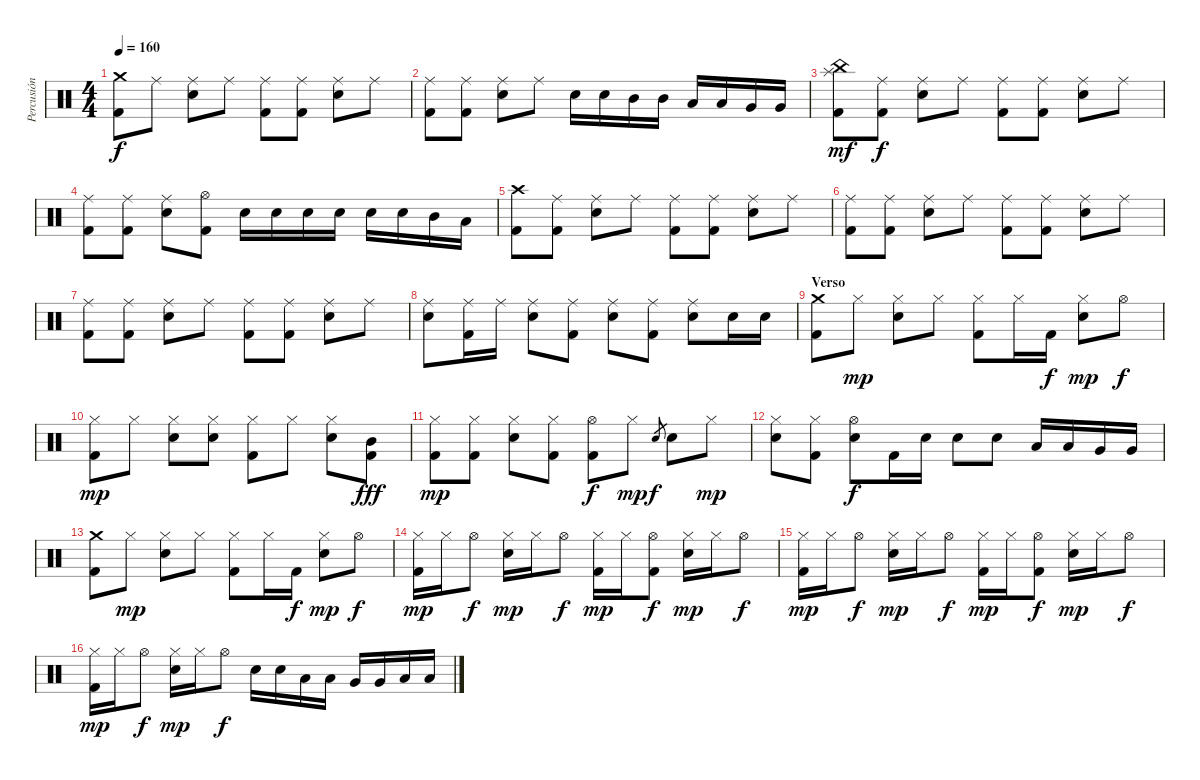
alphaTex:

\track ("Percusión" "Percusión") {instrument percussion}
\staff {score}
\articulation defaults
\ts (4 4)
\tempo 160
\clef neutral
\ks c
("Crash medium (hit)" "Kick (hit) 2").8{dy f} "Ride (middle)".8 ("Ride (middle)" "Electric Snare (hit)").8 "Ride (middle)".8 ("Ride (middle)" "Kick (hit) 2").8 ("Ride (middle)" "Kick (hit) 2").8 ("Ride (middle)" "Electric Snare (hit)").8 "Ride (middle)".8 |
("Ride (middle)" "Kick (hit) 2").8 ("Ride (middle)" "Kick (hit) 2").8 ("Ride (middle)" "Electric Snare (hit)").8 "Ride (middle)".8 "Electric Snare (hit)".16 "Electric Snare (hit)".16 "Mid Tom (hit)".16 "Mid Tom (hit)".16 "Low Tom (hit)".16 "Low Tom (hit)".16 "Very Low Tom (hit)".16 "Very Low Tom (hit)".16 |
("Splash (hit)" "China (hit)" "Kick (hit) 2").8{dy mf} ("Ride (middle)" "Kick (hit) 2").8{dy f} ("Ride (middle)" "Electric Snare (hit)").8 "Ride (middle)".8 ("Ride (middle)" "Kick (hit) 2").8 ("Ride (middle)" "Kick (hit) 2").8 ("Ride (middle)" "Electric Snare (hit)").8 "Ride (middle)".8 |
("Ride (middle)" "Kick (hit) 2").8 ("Ride (middle)" "Kick (hit) 2").8 ("Ride (middle)" "Electric Snare (hit)").8 ("Hi-Hat (open)" "Kick (hit) 2").8 "Electric Snare (hit)".16 "Electric Snare (hit)".16 "Electric Snare (hit)".16 "Electric Snare (hit)".16 "Electric Snare (hit)".16 "Electric Snare (hit)".16 "Mid Tom (hit)".16 "Low Tom (hit)".16 |
("Crash high (hit)" "Kick (hit) 2").8 ("Ride (middle)" "Kick (hit) 2").8 ("Ride (middle)" "Electric Snare (hit)").8 "Ride (middle)".8 ("Ride (middle)" "Kick (hit) 2").8 ("Ride (middle)" "Kick (hit) 2").8 ("Ride (middle)" "Electric Snare (hit)").8 "Ride (middle)".8 |
("Ride (middle)" "Kick (hit) 2").8 ("Ride (middle)" "Kick (hit) 2").8 ("Ride (middle)" "Electric Snare (hit)").8 "Ride (middle)".8 ("Ride (middle)" "Kick (hit) 2").8 ("Ride (middle)" "Kick (hit) 2").8 ("Ride (middle)" "Electric Snare (hit)").8 "Ride (middle)".8 |
("Ride (middle)" "Kick (hit) 2").8 ("Ride (middle)" "Kick (hit) 2").8 ("Ride (middle)" "Electric Snare (hit)").8 "Ride (middle)".8 ("Ride (middle)" "Kick (hit) 2").8 ("Ride (middle)" "Kick (hit) 2").8 ("Ride (middle)" "Electric Snare (hit)").8 "Ride (middle)".8 |
("Ride (middle)" "Electric Snare (hit)").8 ("Ride (middle)" "Kick (hit) 2").16 "Ride (middle)".16 ("Ride (middle)" "Electric Snare (hit)").8 ("Ride (middle)" "Kick (hit) 2").8 ("Ride (middle)" "Electric Snare (hit)").8 ("Ride (middle)" "Kick (hit) 2").8 ("Ride (middle)" "Electric Snare (hit)").8 "Electric Snare (hit)".16 "Electric Snare (hit)".16 |
\section ("" "Verso")
("Crash medium (hit)" "Kick (hit) 2").8 "Hi-Hat (closed)".8{dy mp} ("Hi-Hat (closed)" "Electric Snare (hit)").8 "Hi-Hat (closed)".8 ("Hi-Hat (closed)" "Kick (hit) 2").8 "Hi-Hat (closed)".16 "Kick (hit) 2".16{dy f} ("Hi-Hat (closed)" "Electric Snare (hit)").8{dy mp} "Hi-Hat (open)".8{dy f} |
("Hi-Hat (closed)" "Kick (hit) 2").8{dy mp} "Hi-Hat (closed)".8 ("Hi-Hat (closed)" "Electric Snare (hit)").8 ("Hi-Hat (closed)" "Electric Snare (hit)").8 ("Hi-Hat (closed)" "Kick (hit) 2").8 "Hi-Hat (closed)".8 ("Hi-Hat (closed)" "Electric Snare (hit)").8 ("Mid Tom (hit)" "Kick (hit) 2").8{dy fff} |
("Hi-Hat (closed)" "Kick (hit) 2").8{dy mp} ("Hi-Hat (closed)" "Kick (hit) 2").8 ("Hi-Hat (closed)" "Electric Snare (hit)").8 ("Hi-Hat (closed)" "Kick (hit) 2").8 ("Hi-Hat (open)" "Kick (hit) 2").8{dy f} "Hi-Hat (closed)".8{dy mp} "Electric Snare (hit)".8{gr dy f} "Electric Snare (hit)".8 "Hi-Hat (closed)".8{dy mp} |
("Hi-Hat (closed)" "Electric Snare (hit)").8 ("Hi-Hat (closed)" "Kick (hit) 2").8 ("Hi-Hat (open)" "Electric Snare (hit)").8{dy f} "Kick (hit) 2".16 "Electric Snare (hit)".16 "Electric Snare (hit)".8 "Electric Snare (hit)".8 "Low Tom (hit)".16 "Low Tom (hit)".16 "Very Low Tom (hit)".16 "Very Low Tom (hit)".16 |
("Crash medium (hit)" "Kick (hit) 2").8 "Hi-Hat (closed)".8{dy mp} ("Hi-Hat (closed)" "Electric Snare (hit)").8 "Hi-Hat (closed)".8 ("Hi-Hat (closed)" "Kick (hit) 2").8 "Hi-Hat (closed)".16 "Kick (hit) 2".16{dy f} ("Hi-Hat (closed)" "Electric Snare (hit)").8{dy mp} "Hi-Hat (open)".8{dy f} |
("Hi-Hat (closed)" "Kick (hit) 2").16{dy mp} "Hi-Hat (closed)".16 "Hi-Hat (open)".8{dy f} ("Hi-Hat (closed)" "Electric Snare (hit)").16{dy mp} "Hi-Hat (closed)".16 "Hi-Hat (open)".8{dy f} ("Hi-Hat (closed)" "Kick (hit) 2").16{dy mp} "Hi-Hat (closed)".16 ("Hi-Hat (open)" "Kick (hit) 2").8{dy f} ("Hi-Hat (closed)" "Electric Snare (hit)").16{dy mp} "Hi-Hat (closed)".16 "Hi-Hat (open)".8{dy f} |
("Hi-Hat (closed)" "Kick (hit) 2").16{dy mp} "Hi-Hat (closed)".16 "Hi-Hat (open)".8{dy f} ("Hi-Hat (closed)" "Electric Snare (hit)").16{dy mp} "Hi-Hat (closed)".16 "Hi-Hat (open)".8{dy f} ("Hi-Hat (closed)" "Kick (hit) 2").16{dy mp} "Hi-Hat (closed)".16 ("Hi-Hat (open)" "Kick (hit) 2").8{dy f} ("Hi-Hat (closed)" "Electric Snare (hit)").16{dy mp} "Hi-Hat (closed)".16 "Hi-Hat (open)".8{dy f} |
("Hi-Hat (closed)" "Kick (hit) 2").16{dy mp} "Hi-Hat (closed)".16 "Hi-Hat (open)".8{dy f} ("Hi-Hat (closed)" "Electric Snare (hit)").16{dy mp} "Hi-Hat (closed)".16 "Hi-Hat (open)".8{dy f} "Electric Snare (hit)".16 "Electric Snare (hit)".16 "Low Tom (hit)".16 "Low Tom (hit)".16 "Very Low Tom (hit)".16 "Very Low Tom (hit)".16 "Low Floor Tom (hit)".16 "Low Floor Tom (hit)".16
